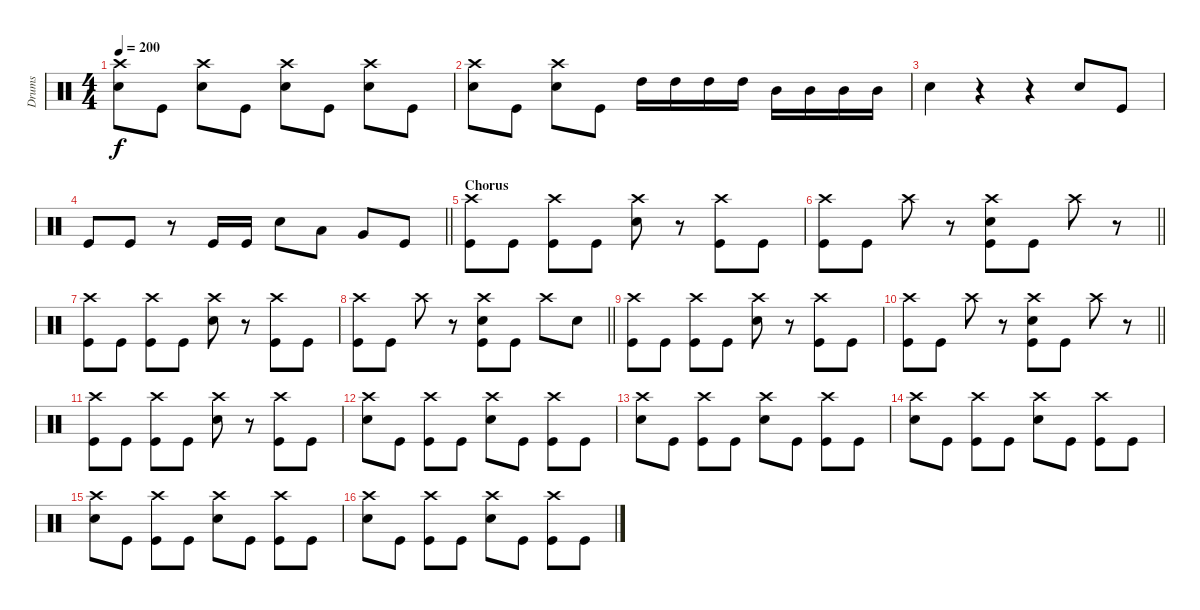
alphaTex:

\track ("Drums" "Drums") {instrument percussion}
\staff {score}
\articulation defaults
\ts (4 4)
\tempo 200
\clef neutral
\ks c
("Crash high (hit)" "Snare (hit) 2").8{dy f} "Kick (hit)".8 ("Crash high (hit)" "Snare (hit) 2").8 "Kick (hit)".8 ("Crash high (hit)" "Snare (hit) 2").8 "Kick (hit)".8 ("Crash high (hit)" "Snare (hit) 2").8 "Kick (hit)".8 |
("Crash high (hit)" "Snare (hit) 2").8 "Kick (hit)".8 ("Crash high (hit)" "Snare (hit) 2").8 "Kick (hit)".8 "High Tom (hit)".16 "High Tom (hit)".16 "High Tom (hit)".16 "High Tom (hit)".16 "Mid Tom (hit)".16 "Mid Tom (hit)".16 "Mid Tom (hit)".16 "Mid Tom (hit)".16 |
"Snare (hit) 2".4 r.4 r.4 "Snare (hit) 2".8 "Kick (hit)".8 |
\barLineRight lightlight "Kick (hit)".8 "Kick (hit)".8
r.8 "Kick (hit)".16 "Kick (hit)".16 "Snare (hit) 2".8 "Low Tom (hit)".8 "Very Low Tom (hit)".8 "Kick (hit)".8 |
\section ("" "Chorus")
("Crash high (hit)" "Kick (hit)").8 "Kick (hit)".8 ("Crash high (hit)" "Kick (hit)").8 "Kick (hit)".8 ("Crash high (hit)" "Snare (hit) 2").8 r.8 ("Crash high (hit)" "Kick (hit)").8 "Kick (hit)".8 |
\barLineRight lightlight
("Crash high (hit)" "Kick (hit)").8 "Kick (hit)".8 "Crash high (hit)".8 r.8 ("Crash high (hit)" "Snare (hit) 2" "Kick (hit)").8 "Kick (hit)".8 "Crash high (hit)".8 r.8 |
("Crash high (hit)" "Kick (hit)").8 "Kick (hit)".8 ("Crash high (hit)" "Kick (hit)").8 "Kick (hit)".8 ("Crash high (hit)" "Snare (hit) 2").8 r.8 ("Crash high (hit)" "Kick (hit)").8 "Kick (hit)".8 |
\barLineRight lightlight
("Crash high (hit)" "Kick (hit)").8 "Kick (hit)".8 "Crash high (hit)".8 r.8 ("Crash high (hit)" "Snare (hit) 2" "Kick (hit)").8 "Kick (hit)".8 "Crash high (hit)".8 "Snare (hit) 2".8 |
("Crash high (hit)" "Kick (hit)").8 "Kick (hit)".8 ("Crash high (hit)" "Kick (hit)").8 "Kick (hit)".8 ("Crash high (hit)" "Snare (hit) 2").8 r.8 ("Crash high (hit)" "Kick (hit)").8 "Kick (hit)".8 |
\barLineRight lightlight
("Crash high (hit)" "Kick (hit)").8 "Kick (hit)".8 "Crash high (hit)".8 r.8 ("Crash high (hit)" "Snare (hit) 2" "Kick (hit)").8 "Kick (hit)".8 "Crash high (hit)".8 r.8 |
("Crash high (hit)" "Kick (hit)").8 "Kick (hit)".8 ("Crash high (hit)" "Kick (hit)").8 "Kick (hit)".8 ("Crash high (hit)" "Snare (hit) 2").8 r.8 ("Crash high (hit)" "Kick (hit)").8 "Kick (hit)".8 |
("Crash high (hit)" "Snare (hit) 2").8 "Kick (hit)".8 ("Crash high (hit)" "Kick (hit)").8 "Kick (hit)".8 ("Crash high (hit)" "Snare (hit) 2").8 "Kick (hit)".8 ("Crash high (hit)" "Kick (hit)").8 "Kick (hit)".8 |
("Crash high (hit)" "Snare (hit) 2").8 "Kick (hit)".8 ("Crash high (hit)" "Kick (hit)").8 "Kick (hit)".8 ("Crash high (hit)" "Snare (hit) 2").8 "Kick (hit)".8 ("Crash high (hit)" "Kick (hit)").8 "Kick (hit)".8 |
("Crash high (hit)" "Snare (hit) 2").8 "Kick (hit)".8 ("Crash high (hit)" "Kick (hit)").8 "Kick (hit)".8 ("Crash high (hit)" "Snare (hit) 2").8 "Kick (hit)".8 ("Crash high (hit)" "Kick (hit)").8 "Kick (hit)".8 |
("Crash high (hit)" "Snare (hit) 2").8 "Kick (hit)".8 ("Crash high (hit)" "Kick (hit)").8 "Kick (hit)".8 ("Crash high (hit)" "Snare (hit) 2").8 "Kick (hit)".8 ("Crash high (hit)" "Kick (hit)").8 "Kick (hit)".8 |
("Crash high (hit)" "Snare (hit) 2").8 "Kick (hit)".8 ("Crash high (hit)" "Kick (hit)").8 "Kick (hit)".8 ("Crash high (hit)" "Snare (hit) 2").8 "Kick (hit)".8 ("Crash high (hit)" "Kick (hit)").8 "Kick (hit)".8
